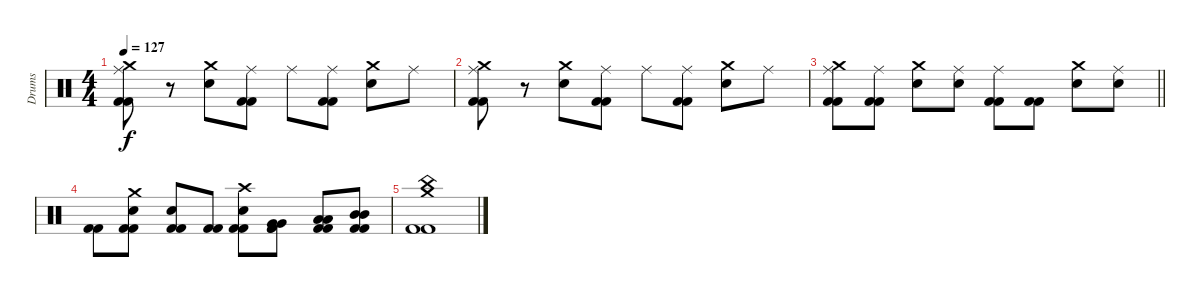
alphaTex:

\track ("Drums" "Drums") {instrument percussion}
\staff {score}
\articulation defaults
\ts (4 4)
\tempo 127
\clef neutral
\ks c
("Ride (middle)" "Crash medium (hit)" "Kick (hit) 2" "Kick (hit) 2").8{dy f} r.8 ("Crash medium (hit)" "Electric Snare (hit)").8 ("Ride (middle)" "Kick (hit) 2" "Kick (hit) 2").8 "Ride (middle)".8 ("Ride (middle)" "Kick (hit) 2" "Kick (hit) 2").8 ("Crash medium (hit)" "Electric Snare (hit)").8 "Ride (middle)".8 |
("Ride (middle)" "Crash medium (hit)" "Kick (hit) 2" "Kick (hit) 2").8 r.8 ("Crash medium (hit)" "Electric Snare (hit)").8 ("Ride (middle)" "Kick (hit) 2" "Kick (hit) 2").8 "Ride (middle)".8 ("Ride (middle)" "Kick (hit) 2" "Kick (hit) 2").8 ("Crash medium (hit)" "Electric Snare (hit)").8 "Ride (middle)".8 |
\barLineRight lightlight
("Ride (middle)" "Crash medium (hit)" "Kick (hit) 2" "Kick (hit) 2").8 ("Ride (middle)" "Kick (hit) 2" "Kick (hit) 2").8 ("Crash medium (hit)" "Electric Snare (hit)").8 ("Ride (middle)" "Electric Snare (hit)").8 ("Ride (middle)" "Kick (hit) 2" "Kick (hit) 2").8 ("Kick (hit) 2" "Kick (hit) 2").8 ("Crash medium (hit)" "Electric Snare (hit)").8 ("Ride (middle)" "Electric Snare (hit)").8 |
("Kick (hit) 2" "Kick (hit) 2").8 ("Crash medium (hit)" "Electric Snare (hit)" "Kick (hit) 2" "Kick (hit) 2").8 ("Electric Snare (hit)" "Kick (hit) 2" "Kick (hit) 2").8 ("Kick (hit) 2" "Kick (hit) 2").8 ("Crash high (hit)" "Electric Snare (hit)" "Kick (hit) 2" "Kick (hit) 2").8 ("Very Low Tom (hit)" "Very Low Tom (hit)" "Kick (hit) 2" "Kick (hit) 2").8 ("Low Tom (hit)" "Low Tom (hit)" "Kick (hit) 2" "Kick (hit) 2").8 ("Mid Tom (hit)" "Mid Tom (hit)" "Kick (hit) 2" "Kick (hit) 2").8 |
("Crash medium (hit)" "China (hit)" "Kick (hit) 2" "Kick (hit) 2").1
